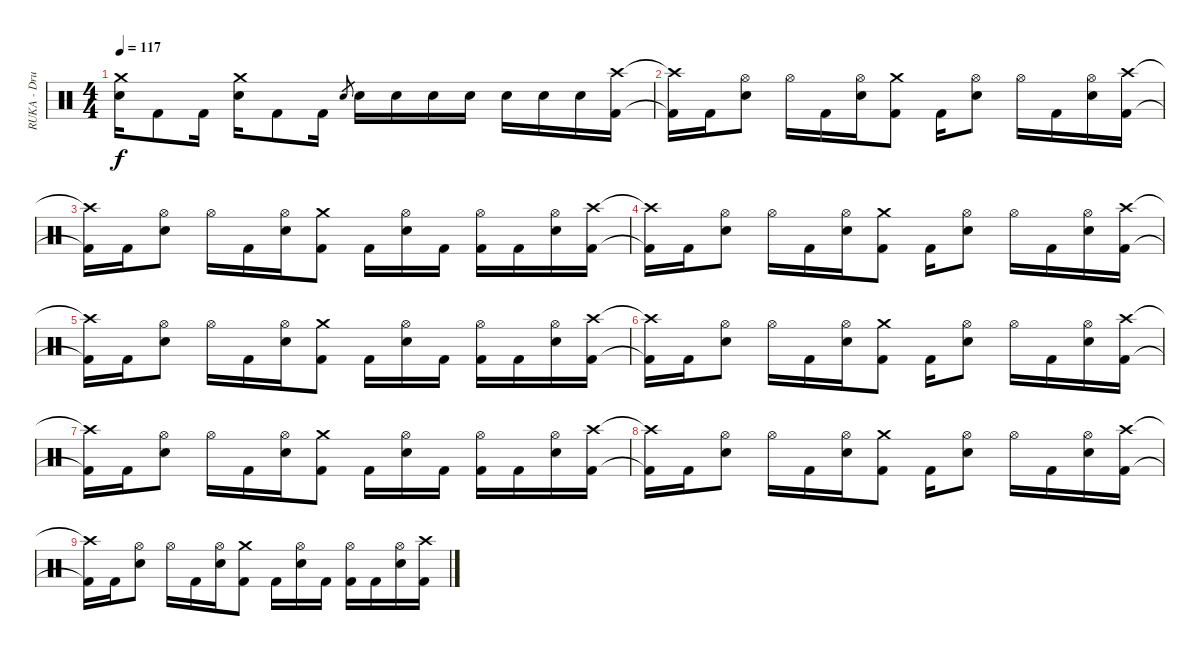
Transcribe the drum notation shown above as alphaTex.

\track ("RUKA - Drums" "RUKA - Dru") {instrument percussion}
\staff {score}
\articulation defaults
\ts (4 4)
\tempo 117
\clef neutral
\ks c
("Crash medium (hit)" "Electric Snare (hit)").16{dy f} "Kick (hit) 2".8 "Kick (hit) 2".16 ("Crash medium (hit)" "Electric Snare (hit)").16 "Kick (hit) 2".8 "Kick (hit) 2".16 "Electric Snare (hit)".8{gr} "Electric Snare (hit)".16 "Electric Snare (hit)".16 "Electric Snare (hit)".16 "Electric Snare (hit)".16 "Electric Snare (hit)".16 "Electric Snare (hit)".16 "Electric Snare (hit)".16 ("Kick (hit) 2" "Crash high (hit)").16 |
("Kick (hit) 2"{t} "Crash high (hit)"{t}).16 "Kick (hit) 2".16 ("Hi-Hat (open)" "Electric Snare (hit)").8 "Hi-Hat (open)".16 "Kick (hit) 2".16 ("Hi-Hat (open)" "Electric Snare (hit)").16 ("Kick (hit) 2" "Crash medium (hit)").8 "Kick (hit) 2".16 ("Hi-Hat (open)" "Electric Snare (hit)").8 "Hi-Hat (open)".16 "Kick (hit) 2".16 ("Hi-Hat (open)" "Electric Snare (hit)").16 ("Kick (hit) 2" "Crash high (hit)").16 |
("Kick (hit) 2"{t} "Crash high (hit)"{t}).16 "Kick (hit) 2".16 ("Hi-Hat (open)" "Electric Snare (hit)").8 "Hi-Hat (open)".16 "Kick (hit) 2".16 ("Hi-Hat (open)" "Electric Snare (hit)").16 ("Kick (hit) 2" "Crash medium (hit)").8 "Kick (hit) 2".16 ("Hi-Hat (open)" "Electric Snare (hit)").16 "Kick (hit) 2".16 ("Hi-Hat (open)" "Kick (hit) 2").16 "Kick (hit) 2".16 ("Hi-Hat (open)" "Electric Snare (hit)").16 ("Kick (hit) 2" "Crash high (hit)").16 |
("Kick (hit) 2"{t} "Crash high (hit)"{t}).16 "Kick (hit) 2".16 ("Hi-Hat (open)" "Electric Snare (hit)").8 "Hi-Hat (open)".16 "Kick (hit) 2".16 ("Hi-Hat (open)" "Electric Snare (hit)").16 ("Kick (hit) 2" "Crash medium (hit)").8 "Kick (hit) 2".16 ("Hi-Hat (open)" "Electric Snare (hit)").8 "Hi-Hat (open)".16 "Kick (hit) 2".16 ("Hi-Hat (open)" "Electric Snare (hit)").16 ("Kick (hit) 2" "Crash high (hit)").16 |
("Kick (hit) 2"{t} "Crash high (hit)"{t}).16 "Kick (hit) 2".16 ("Hi-Hat (open)" "Electric Snare (hit)").8 "Hi-Hat (open)".16 "Kick (hit) 2".16 ("Hi-Hat (open)" "Electric Snare (hit)").16 ("Kick (hit) 2" "Crash medium (hit)").8 "Kick (hit) 2".16 ("Hi-Hat (open)" "Electric Snare (hit)").16 "Kick (hit) 2".16 ("Hi-Hat (open)" "Kick (hit) 2").16 "Kick (hit) 2".16 ("Hi-Hat (open)" "Electric Snare (hit)").16 ("Kick (hit) 2" "Crash high (hit)").16 |
("Kick (hit) 2"{t} "Crash high (hit)"{t}).16 "Kick (hit) 2".16 ("Hi-Hat (open)" "Electric Snare (hit)").8 "Hi-Hat (open)".16 "Kick (hit) 2".16 ("Hi-Hat (open)" "Electric Snare (hit)").16 ("Kick (hit) 2" "Crash medium (hit)").8 "Kick (hit) 2".16 ("Hi-Hat (open)" "Electric Snare (hit)").8 "Hi-Hat (open)".16 "Kick (hit) 2".16 ("Hi-Hat (open)" "Electric Snare (hit)").16 ("Kick (hit) 2" "Crash high (hit)").16 |
("Kick (hit) 2"{t} "Crash high (hit)"{t}).16 "Kick (hit) 2".16 ("Hi-Hat (open)" "Electric Snare (hit)").8 "Hi-Hat (open)".16 "Kick (hit) 2".16 ("Hi-Hat (open)" "Electric Snare (hit)").16 ("Kick (hit) 2" "Crash medium (hit)").8 "Kick (hit) 2".16 ("Hi-Hat (open)" "Electric Snare (hit)").16 "Kick (hit) 2".16 ("Hi-Hat (open)" "Kick (hit) 2").16 "Kick (hit) 2".16 ("Hi-Hat (open)" "Electric Snare (hit)").16 ("Kick (hit) 2" "Crash high (hit)").16 |
("Kick (hit) 2"{t} "Crash high (hit)"{t}).16 "Kick (hit) 2".16 ("Hi-Hat (open)" "Electric Snare (hit)").8 "Hi-Hat (open)".16 "Kick (hit) 2".16 ("Hi-Hat (open)" "Electric Snare (hit)").16 ("Kick (hit) 2" "Crash medium (hit)").8 "Kick (hit) 2".16 ("Hi-Hat (open)" "Electric Snare (hit)").8 "Hi-Hat (open)".16 "Kick (hit) 2".16 ("Hi-Hat (open)" "Electric Snare (hit)").16 ("Kick (hit) 2" "Crash high (hit)").16 |
("Kick (hit) 2"{t} "Crash high (hit)"{t}).16 "Kick (hit) 2".16 ("Hi-Hat (open)" "Electric Snare (hit)").8 "Hi-Hat (open)".16 "Kick (hit) 2".16 ("Hi-Hat (open)" "Electric Snare (hit)").16 ("Kick (hit) 2" "Crash medium (hit)").8 "Kick (hit) 2".16 ("Hi-Hat (open)" "Electric Snare (hit)").16 "Kick (hit) 2".16 ("Hi-Hat (open)" "Kick (hit) 2").16 "Kick (hit) 2".16 ("Hi-Hat (open)" "Electric Snare (hit)").16 ("Kick (hit) 2" "Crash high (hit)").16
